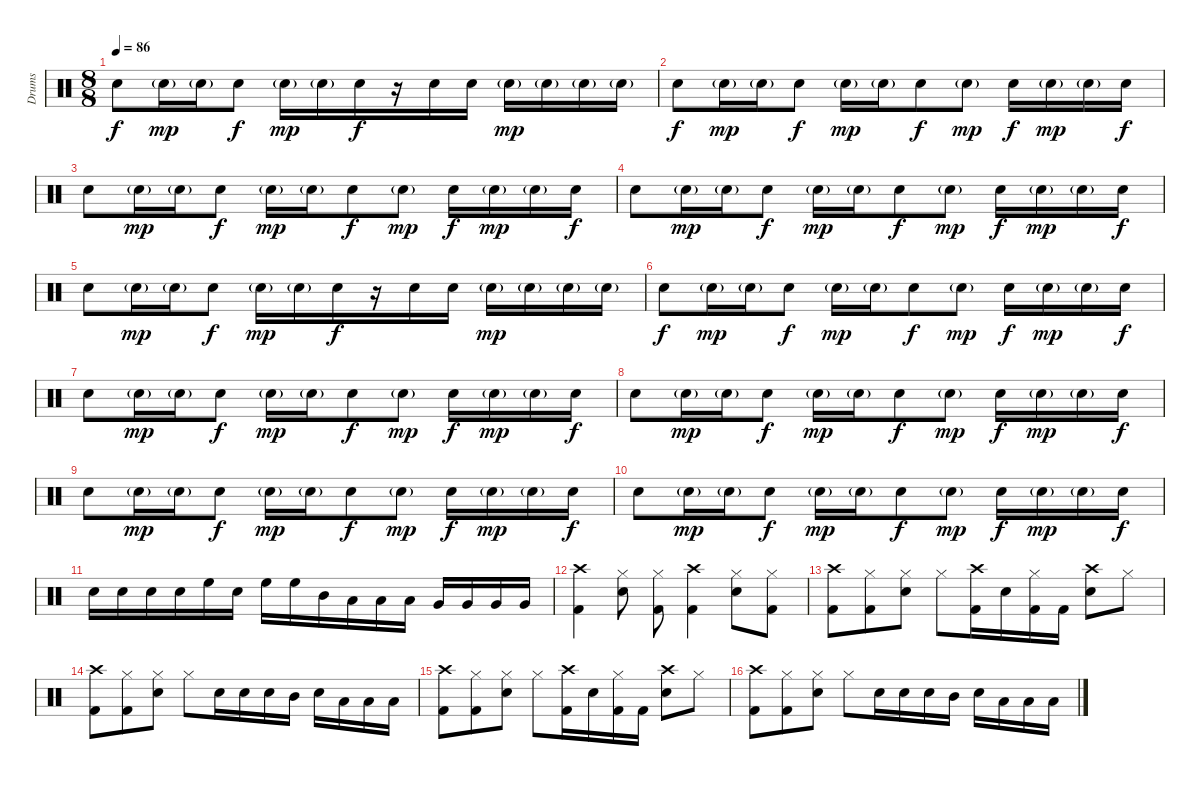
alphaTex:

\track ("Drums" "Drums") {instrument percussion}
\staff {score}
\articulation defaults
\ts (8 8)
\tempo 86
\clef neutral
\ks c "Snare (hit) 2".8{dy f} "Snare (hit) 2"{g}.16{dy mp} "Snare (hit) 2"{g}.16 "Snare (hit) 2".8{dy f} "Snare (hit) 2"{g}.16{dy mp} "Snare (hit) 2"{g}.16 "Snare (hit) 2".16{dy f}
r.16 "Snare (hit) 2".16 "Snare (hit) 2".16 "Snare (hit) 2"{g}.16{dy mp} "Snare (hit) 2"{g}.16 "Snare (hit) 2"{g}.16 "Snare (hit) 2"{g}.16 |
"Snare (hit) 2".8{dy f} "Snare (hit) 2"{g}.16{dy mp} "Snare (hit) 2"{g}.16 "Snare (hit) 2".8{dy f} "Snare (hit) 2"{g}.16{dy mp} "Snare (hit) 2"{g}.16 "Snare (hit) 2".8{dy f} "Snare (hit) 2"{g}.8{dy mp} "Snare (hit) 2".16{dy f} "Snare (hit) 2"{g}.16{dy mp} "Snare (hit) 2"{g}.16 "Snare (hit) 2".16{dy f} |
"Snare (hit) 2".8 "Snare (hit) 2"{g}.16{dy mp} "Snare (hit) 2"{g}.16 "Snare (hit) 2".8{dy f} "Snare (hit) 2"{g}.16{dy mp} "Snare (hit) 2"{g}.16 "Snare (hit) 2".8{dy f} "Snare (hit) 2"{g}.8{dy mp} "Snare (hit) 2".16{dy f} "Snare (hit) 2"{g}.16{dy mp} "Snare (hit) 2"{g}.16 "Snare (hit) 2".16{dy f} |
"Snare (hit) 2".8 "Snare (hit) 2"{g}.16{dy mp} "Snare (hit) 2"{g}.16 "Snare (hit) 2".8{dy f} "Snare (hit) 2"{g}.16{dy mp} "Snare (hit) 2"{g}.16 "Snare (hit) 2".8{dy f} "Snare (hit) 2"{g}.8{dy mp} "Snare (hit) 2".16{dy f} "Snare (hit) 2"{g}.16{dy mp} "Snare (hit) 2"{g}.16 "Snare (hit) 2".16{dy f} |
"Snare (hit) 2".8 "Snare (hit) 2"{g}.16{dy mp} "Snare (hit) 2"{g}.16 "Snare (hit) 2".8{dy f} "Snare (hit) 2"{g}.16{dy mp} "Snare (hit) 2"{g}.16 "Snare (hit) 2".16{dy f} r.16 "Snare (hit) 2".16 "Snare (hit) 2".16 "Snare (hit) 2"{g}.16{dy mp} "Snare (hit) 2"{g}.16 "Snare (hit) 2"{g}.16 "Snare (hit) 2"{g}.16 |
"Snare (hit) 2".8{dy f} "Snare (hit) 2"{g}.16{dy mp} "Snare (hit) 2"{g}.16 "Snare (hit) 2".8{dy f} "Snare (hit) 2"{g}.16{dy mp} "Snare (hit) 2"{g}.16 "Snare (hit) 2".8{dy f} "Snare (hit) 2"{g}.8{dy mp} "Snare (hit) 2".16{dy f} "Snare (hit) 2"{g}.16{dy mp} "Snare (hit) 2"{g}.16 "Snare (hit) 2".16{dy f} |
"Snare (hit) 2".8 "Snare (hit) 2"{g}.16{dy mp} "Snare (hit) 2"{g}.16 "Snare (hit) 2".8{dy f} "Snare (hit) 2"{g}.16{dy mp} "Snare (hit) 2"{g}.16 "Snare (hit) 2".8{dy f} "Snare (hit) 2"{g}.8{dy mp} "Snare (hit) 2".16{dy f} "Snare (hit) 2"{g}.16{dy mp} "Snare (hit) 2"{g}.16 "Snare (hit) 2".16{dy f} |
"Snare (hit) 2".8 "Snare (hit) 2"{g}.16{dy mp} "Snare (hit) 2"{g}.16 "Snare (hit) 2".8{dy f} "Snare (hit) 2"{g}.16{dy mp} "Snare (hit) 2"{g}.16 "Snare (hit) 2".8{dy f} "Snare (hit) 2"{g}.8{dy mp} "Snare (hit) 2".16{dy f} "Snare (hit) 2"{g}.16{dy mp} "Snare (hit) 2"{g}.16 "Snare (hit) 2".16{dy f} |
"Snare (hit) 2".8 "Snare (hit) 2"{g}.16{dy mp} "Snare (hit) 2"{g}.16 "Snare (hit) 2".8{dy f} "Snare (hit) 2"{g}.16{dy mp} "Snare (hit) 2"{g}.16 "Snare (hit) 2".8{dy f} "Snare (hit) 2"{g}.8{dy mp} "Snare (hit) 2".16{dy f} "Snare (hit) 2"{g}.16{dy mp} "Snare (hit) 2"{g}.16 "Snare (hit) 2".16{dy f} |
"Snare (hit) 2".8 "Snare (hit) 2"{g}.16{dy mp} "Snare (hit) 2"{g}.16 "Snare (hit) 2".8{dy f} "Snare (hit) 2"{g}.16{dy mp} "Snare (hit) 2"{g}.16 "Snare (hit) 2".8{dy f} "Snare (hit) 2"{g}.8{dy mp} "Snare (hit) 2".16{dy f} "Snare (hit) 2"{g}.16{dy mp} "Snare (hit) 2"{g}.16 "Snare (hit) 2".16{dy f} |
"Snare (hit) 2".16 "Snare (hit) 2".16 "Snare (hit) 2".16 "Snare (hit) 2".16 "High Floor Tom (hit)".16 "Snare (hit) 2".16 "High Floor Tom (hit)".16 "High Floor Tom (hit)".16 "Mid Tom (hit)".16 "Low Tom (hit)".16 "Low Floor Tom (hit)".16 "Low Floor Tom (hit)".16 "Very Low Tom (hit)".16 "Very Low Tom (hit)".16 "Very Low Tom (hit)".16 "Very Low Tom (hit)".16 |
("Crash high (hit)" "Kick (hit) 2").4 ("Hi-Hat (closed)" "Snare (hit) 2").8 ("Hi-Hat (closed)" "Kick (hit) 2").8 ("Crash high (hit)" "Kick (hit) 2").4 ("Hi-Hat (closed)" "Snare (hit) 2").8 ("Hi-Hat (closed)" "Kick (hit) 2").8 |
("Crash high (hit)" "Kick (hit) 2").8 ("Hi-Hat (closed)" "Kick (hit) 2").8 ("Hi-Hat (closed)" "Snare (hit) 2").8 "Hi-Hat (closed)".8 ("Crash high (hit)" "Kick (hit) 2").16 "Snare (hit) 2".16 ("Hi-Hat (closed)" "Kick (hit) 2").16 "Kick (hit) 2".16 ("Crash high (hit)" "Snare (hit) 2").8 "Hi-Hat (closed)".8 |
("Crash high (hit)" "Kick (hit) 2").8 ("Hi-Hat (closed)" "Kick (hit) 2").8 ("Hi-Hat (closed)" "Snare (hit) 2").8 "Hi-Hat (closed)".8 "Snare (hit) 2".16 "Snare (hit) 2".16 "Snare (hit) 2".16 "Mid Tom (hit)".16 "Snare (hit) 2".16 "Low Tom (hit)".16 "Low Tom (hit)".16 "Low Tom (hit)".16 |
("Crash high (hit)" "Kick (hit) 2").8 ("Hi-Hat (closed)" "Kick (hit) 2").8 ("Hi-Hat (closed)" "Snare (hit) 2").8 "Hi-Hat (closed)".8 ("Crash high (hit)" "Kick (hit) 2").16 "Snare (hit) 2".16 ("Hi-Hat (closed)" "Kick (hit) 2").16 "Kick (hit) 2".16 ("Crash high (hit)" "Snare (hit) 2").8 "Hi-Hat (closed)".8 |
("Crash high (hit)" "Kick (hit) 2").8 ("Hi-Hat (closed)" "Kick (hit) 2").8 ("Hi-Hat (closed)" "Snare (hit) 2").8 "Hi-Hat (closed)".8 "Snare (hit) 2".16 "Snare (hit) 2".16 "Snare (hit) 2".16 "Mid Tom (hit)".16 "Snare (hit) 2".16 "Low Tom (hit)".16 "Low Tom (hit)".16 "Low Tom (hit)".16
